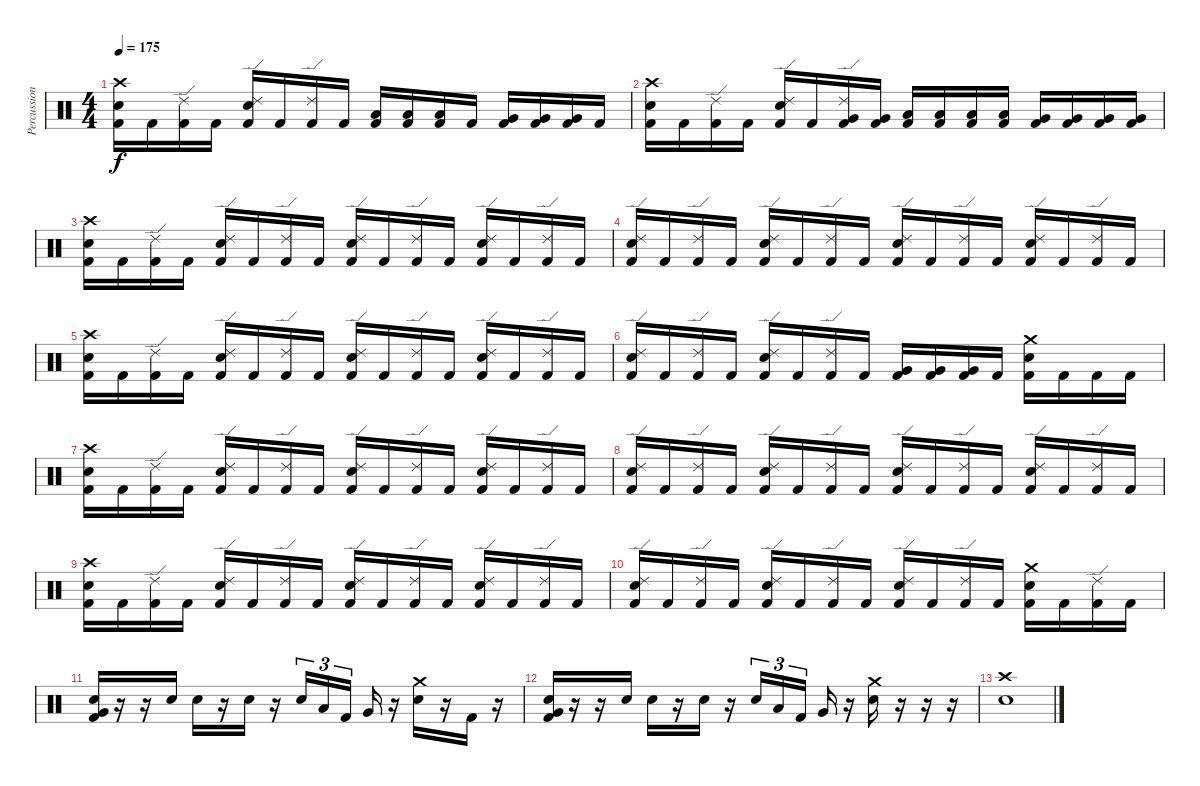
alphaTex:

\track ("Percussion" "Percussion") {instrument percussion}
\staff {score}
\articulation defaults
\ts (4 4)
\tempo 175
\clef neutral
\ks c
("Crash high (hit)" "Snare (hit) 2" "Kick (hit) 2").16{dy f} "Kick (hit) 2".16 ("Ride (edge) 2" "Kick (hit) 2").16 "Kick (hit) 2".16 ("Ride (edge) 2" "Snare (hit) 2" "Kick (hit) 2").16 "Kick (hit) 2".16 ("Ride (edge) 2" "Kick (hit) 2").16 "Kick (hit) 2".16 ("Low Tom (hit)" "Kick (hit) 2").16 ("Low Tom (hit)" "Kick (hit) 2").16 ("Low Tom (hit)" "Kick (hit) 2").16 "Kick (hit) 2".16 ("Very Low Tom (hit)" "Kick (hit) 2").16 ("Very Low Tom (hit)" "Kick (hit) 2").16 ("Very Low Tom (hit)" "Kick (hit) 2").16 "Kick (hit) 2".16 |
("Crash high (hit)" "Snare (hit) 2" "Kick (hit) 2").16 "Kick (hit) 2".16 ("Ride (edge) 2" "Kick (hit) 2").16 "Kick (hit) 2".16 ("Ride (edge) 2" "Snare (hit) 2" "Kick (hit) 2").16 "Kick (hit) 2".16 ("Ride (edge) 2" "Very Low Tom (hit)" "Kick (hit) 2").16 ("Very Low Tom (hit)" "Kick (hit) 2").16 ("Low Tom (hit)" "Kick (hit) 2").16 ("Low Tom (hit)" "Kick (hit) 2").16 ("Low Tom (hit)" "Kick (hit) 2").16 ("Low Tom (hit)" "Kick (hit) 2").16 ("Very Low Tom (hit)" "Kick (hit) 2").16 ("Very Low Tom (hit)" "Kick (hit) 2").16 ("Very Low Tom (hit)" "Kick (hit) 2").16 ("Very Low Tom (hit)" "Kick (hit) 2").16 |
("Crash high (hit)" "Snare (hit) 2" "Kick (hit) 2").16 "Kick (hit) 2".16 ("Ride (edge) 2" "Kick (hit) 2").16 "Kick (hit) 2".16 ("Ride (edge) 2" "Snare (hit) 2" "Kick (hit) 2").16 "Kick (hit) 2".16 ("Ride (edge) 2" "Kick (hit) 2").16 "Kick (hit) 2".16 ("Ride (edge) 2" "Snare (hit) 2" "Kick (hit) 2").16 "Kick (hit) 2".16 ("Ride (edge) 2" "Kick (hit) 2").16 "Kick (hit) 2".16 ("Ride (edge) 2" "Snare (hit) 2" "Kick (hit) 2").16 "Kick (hit) 2".16 ("Ride (edge) 2" "Kick (hit) 2").16 "Kick (hit) 2".16 |
("Ride (edge) 2" "Snare (hit) 2" "Kick (hit) 2").16 "Kick (hit) 2".16 ("Ride (edge) 2" "Kick (hit) 2").16 "Kick (hit) 2".16 ("Ride (edge) 2" "Snare (hit) 2" "Kick (hit) 2").16 "Kick (hit) 2".16 ("Ride (edge) 2" "Kick (hit) 2").16 "Kick (hit) 2".16 ("Ride (edge) 2" "Snare (hit) 2" "Kick (hit) 2").16 "Kick (hit) 2".16 ("Ride (edge) 2" "Kick (hit) 2").16 "Kick (hit) 2".16 ("Ride (edge) 2" "Snare (hit) 2" "Kick (hit) 2").16 "Kick (hit) 2".16 ("Ride (edge) 2" "Kick (hit) 2").16 "Kick (hit) 2".16 |
("Crash high (hit)" "Snare (hit) 2" "Kick (hit) 2").16 "Kick (hit) 2".16 ("Ride (edge) 2" "Kick (hit) 2").16 "Kick (hit) 2".16 ("Ride (edge) 2" "Snare (hit) 2" "Kick (hit) 2").16 "Kick (hit) 2".16 ("Ride (edge) 2" "Kick (hit) 2").16 "Kick (hit) 2".16 ("Ride (edge) 2" "Snare (hit) 2" "Kick (hit) 2").16 "Kick (hit) 2".16 ("Ride (edge) 2" "Kick (hit) 2").16 "Kick (hit) 2".16 ("Ride (edge) 2" "Snare (hit) 2" "Kick (hit) 2").16 "Kick (hit) 2".16 ("Ride (edge) 2" "Kick (hit) 2").16 "Kick (hit) 2".16 |
("Ride (edge) 2" "Snare (hit) 2" "Kick (hit) 2").16 "Kick (hit) 2".16 ("Ride (edge) 2" "Kick (hit) 2").16 "Kick (hit) 2".16 ("Ride (edge) 2" "Snare (hit) 2" "Kick (hit) 2").16 "Kick (hit) 2".16 ("Ride (edge) 2" "Kick (hit) 2").16 "Kick (hit) 2".16 ("Very Low Tom (hit)" "Kick (hit) 2").16 ("Very Low Tom (hit)" "Kick (hit) 2").16 ("Very Low Tom (hit)" "Kick (hit) 2").16 "Kick (hit) 2".16 ("Crash medium (hit)" "Snare (hit) 2" "Kick (hit) 2").16 "Kick (hit) 2".16 "Kick (hit) 2".16 "Kick (hit) 2".16 |
("Crash high (hit)" "Snare (hit) 2" "Kick (hit) 2").16 "Kick (hit) 2".16 ("Ride (edge) 2" "Kick (hit) 2").16 "Kick (hit) 2".16 ("Ride (edge) 2" "Snare (hit) 2" "Kick (hit) 2").16 "Kick (hit) 2".16 ("Ride (edge) 2" "Kick (hit) 2").16 "Kick (hit) 2".16 ("Ride (edge) 2" "Snare (hit) 2" "Kick (hit) 2").16 "Kick (hit) 2".16 ("Ride (edge) 2" "Kick (hit) 2").16 "Kick (hit) 2".16 ("Ride (edge) 2" "Snare (hit) 2" "Kick (hit) 2").16 "Kick (hit) 2".16 ("Ride (edge) 2" "Kick (hit) 2").16 "Kick (hit) 2".16 |
("Ride (edge) 2" "Snare (hit) 2" "Kick (hit) 2").16 "Kick (hit) 2".16 ("Ride (edge) 2" "Kick (hit) 2").16 "Kick (hit) 2".16 ("Ride (edge) 2" "Snare (hit) 2" "Kick (hit) 2").16 "Kick (hit) 2".16 ("Ride (edge) 2" "Kick (hit) 2").16 "Kick (hit) 2".16 ("Ride (edge) 2" "Snare (hit) 2" "Kick (hit) 2").16 "Kick (hit) 2".16 ("Ride (edge) 2" "Kick (hit) 2").16 "Kick (hit) 2".16 ("Ride (edge) 2" "Snare (hit) 2" "Kick (hit) 2").16 "Kick (hit) 2".16 ("Ride (edge) 2" "Kick (hit) 2").16 "Kick (hit) 2".16 |
("Crash high (hit)" "Snare (hit) 2" "Kick (hit) 2").16 "Kick (hit) 2".16 ("Ride (edge) 2" "Kick (hit) 2").16 "Kick (hit) 2".16 ("Ride (edge) 2" "Snare (hit) 2" "Kick (hit) 2").16 "Kick (hit) 2".16 ("Ride (edge) 2" "Kick (hit) 2").16 "Kick (hit) 2".16 ("Ride (edge) 2" "Snare (hit) 2" "Kick (hit) 2").16 "Kick (hit) 2".16 ("Ride (edge) 2" "Kick (hit) 2").16 "Kick (hit) 2".16 ("Ride (edge) 2" "Snare (hit) 2" "Kick (hit) 2").16 "Kick (hit) 2".16 ("Ride (edge) 2" "Kick (hit) 2").16 "Kick (hit) 2".16 |
("Ride (edge) 2" "Snare (hit) 2" "Kick (hit) 2").16 "Kick (hit) 2".16 ("Ride (edge) 2" "Kick (hit) 2").16 "Kick (hit) 2".16 ("Ride (edge) 2" "Snare (hit) 2" "Kick (hit) 2").16 "Kick (hit) 2".16 ("Ride (edge) 2" "Kick (hit) 2").16 "Kick (hit) 2".16 ("Ride (edge) 2" "Snare (hit) 2" "Kick (hit) 2").16 "Kick (hit) 2".16 ("Ride (edge) 2" "Kick (hit) 2").16 "Kick (hit) 2".16 ("Crash medium (hit)" "Snare (hit) 2" "Kick (hit) 2").16 "Kick (hit) 2".16 ("Ride (edge) 2" "Kick (hit) 2").16 "Kick (hit) 2".16 |
("Snare (hit) 2" "Very Low Tom (hit)" "Kick (hit) 2").16 r.16 r.16 "Snare (hit) 2".16 "Snare (hit) 2".16 r.16 "Snare (hit) 2".16 r.16 "Snare (hit) 2".16{tu (3 2)} "Low Tom (hit)".16{tu (3 2)} "Kick (hit) 2".16{tu (3 2)} "Very Low Tom (hit)".16 r.16 ("Crash medium (hit)" "Snare (hit) 2").16 r.16 "Kick (hit) 2".16 r.16 |
("Snare (hit) 2" "Very Low Tom (hit)" "Kick (hit) 2").16 r.16 r.16 "Snare (hit) 2".16 "Snare (hit) 2".16 r.16 "Snare (hit) 2".16 r.16 "Snare (hit) 2".16{tu (3 2)} "Low Tom (hit)".16{tu (3 2)} "Kick (hit) 2".16{tu (3 2)} "Very Low Tom (hit)".16 r.16 ("Crash medium (hit)" "Snare (hit) 2").16 r.16 r.16 r.16 |
("Crash high (hit)" "Snare (hit) 2").1
